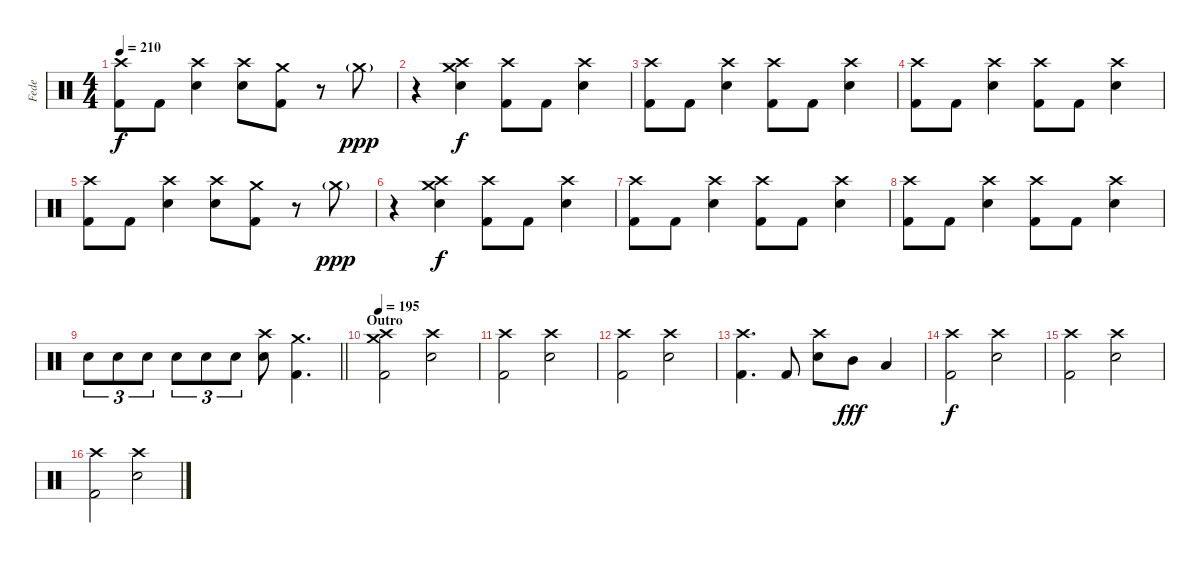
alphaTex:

\track ("Fede" "Fede") {instrument percussion}
\staff {score}
\articulation defaults
\ts (4 4)
\tempo 210
\clef neutral
\ks c
("Crash high (hit)" "Kick (hit) 2").8{dy f} "Kick (hit) 2".8 ("Crash high (hit)" "Snare (hit) 2").4 ("Crash high (hit)" "Snare (hit) 2").8 ("Crash medium (hit)" "Kick (hit) 2").8 r.8 "Crash medium (hit)"{g}.8{dy ppp} |
r.4 ("Crash high (hit)" "Crash medium (hit)" "Snare (hit) 2").4{dy f} ("Crash high (hit)" "Kick (hit) 2").8 "Kick (hit) 2".8 ("Crash high (hit)" "Snare (hit) 2").4 |
("Crash high (hit)" "Kick (hit) 2").8 "Kick (hit) 2".8 ("Crash high (hit)" "Snare (hit) 2").4 ("Crash high (hit)" "Kick (hit) 2").8 "Kick (hit) 2".8 ("Crash high (hit)" "Snare (hit) 2").4 |
("Crash high (hit)" "Kick (hit) 2").8 "Kick (hit) 2".8 ("Crash high (hit)" "Snare (hit) 2").4 ("Crash high (hit)" "Kick (hit) 2").8 "Kick (hit) 2".8 ("Crash high (hit)" "Snare (hit) 2").4 |
("Crash high (hit)" "Kick (hit) 2").8 "Kick (hit) 2".8 ("Crash high (hit)" "Snare (hit) 2").4 ("Crash high (hit)" "Snare (hit) 2").8 ("Crash medium (hit)" "Kick (hit) 2").8 r.8 "Crash medium (hit)"{g}.8{dy ppp} |
r.4 ("Crash high (hit)" "Crash medium (hit)" "Snare (hit) 2").4{dy f} ("Crash high (hit)" "Kick (hit) 2").8 "Kick (hit) 2".8 ("Crash high (hit)" "Snare (hit) 2").4 |
("Crash high (hit)" "Kick (hit) 2").8 "Kick (hit) 2".8 ("Crash high (hit)" "Snare (hit) 2").4 ("Crash high (hit)" "Kick (hit) 2").8 "Kick (hit) 2".8 ("Crash high (hit)" "Snare (hit) 2").4 |
("Crash high (hit)" "Kick (hit) 2").8 "Kick (hit) 2".8 ("Crash high (hit)" "Snare (hit) 2").4 ("Crash high (hit)" "Kick (hit) 2").8 "Kick (hit) 2".8 ("Crash high (hit)" "Snare (hit) 2").4 |
\barLineRight lightlight "Snare (hit) 2".8{tu (3 2)} "Snare (hit) 2".8{tu (3 2)} "Snare (hit) 2".8{tu (3 2)} "Snare (hit) 2".8{tu (3 2)} "Snare (hit) 2".8{tu (3 2)} "Snare (hit) 2".8{tu (3 2)}
("Crash high (hit)" "Snare (hit) 2").8 ("Crash medium (hit)" "Kick (hit) 2").4{d} |
\section ("" "Outro")
\tempo 195
("Crash high (hit)" "Crash medium (hit)" "Kick (hit) 2").2 ("Crash high (hit)" "Snare (hit) 2").2 |
("Crash high (hit)" "Kick (hit) 2").2 ("Crash high (hit)" "Snare (hit) 2").2 |
("Crash high (hit)" "Kick (hit) 2").2 ("Crash high (hit)" "Snare (hit) 2").2 |
("Crash high (hit)" "Kick (hit) 2").4{d} "Kick (hit) 2".8 ("Crash high (hit)" "Snare (hit) 2").8 "Mid Tom (hit)".8{dy fff} "Low Tom (hit)".4 |
("Crash high (hit)" "Kick (hit) 2").2{dy f} ("Crash high (hit)" "Snare (hit) 2").2 |
("Crash high (hit)" "Kick (hit) 2").2 ("Crash high (hit)" "Snare (hit) 2").2 |
("Crash high (hit)" "Kick (hit) 2").2 ("Crash high (hit)" "Snare (hit) 2").2
